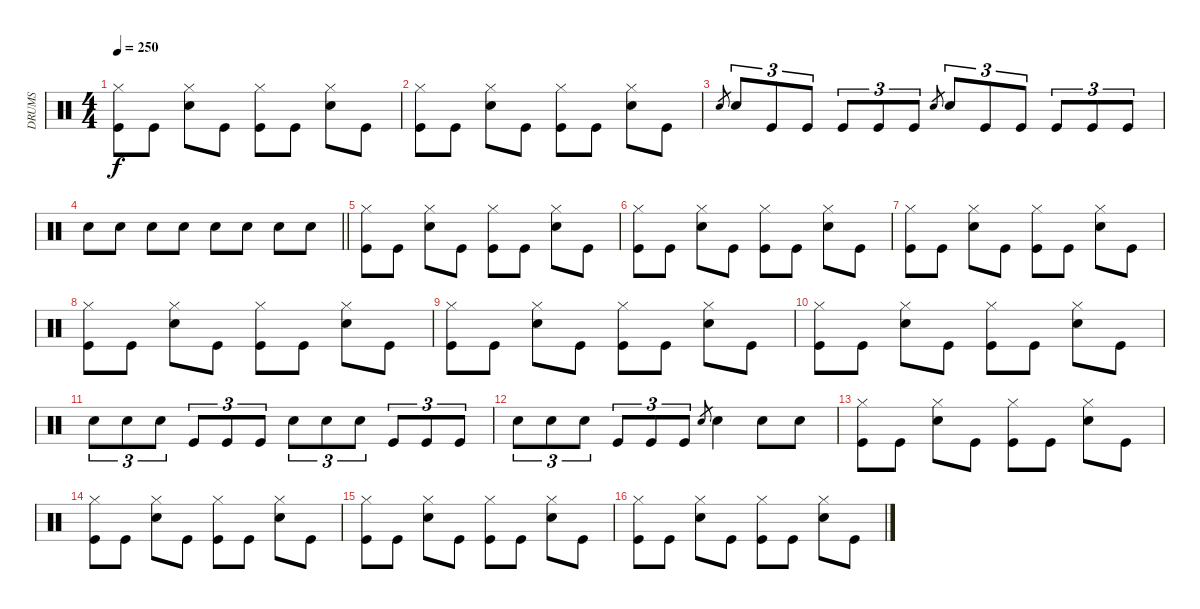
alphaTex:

\track ("DRUMS" "DRUMS") {instrument percussion}
\staff {score}
\articulation defaults
\ts (4 4)
\tempo 250
\clef neutral
\ks aminor
("Hi-Hat (closed)" "Kick (hit)").8{dy f} "Kick (hit)".8 ("Hi-Hat (closed)" "Snare (hit) 2").8 "Kick (hit)".8 ("Hi-Hat (closed)" "Kick (hit)").8 "Kick (hit)".8 ("Hi-Hat (closed)" "Snare (hit) 2").8 "Kick (hit)".8 |
("Hi-Hat (closed)" "Kick (hit)").8 "Kick (hit)".8 ("Hi-Hat (closed)" "Snare (hit) 2").8 "Kick (hit)".8 ("Hi-Hat (closed)" "Kick (hit)").8 "Kick (hit)".8 ("Hi-Hat (closed)" "Snare (hit) 2").8 "Kick (hit)".8 |
"Snare (hit) 2".8{gr} "Snare (hit) 2".8{tu (3 2)} "Kick (hit)".8{tu (3 2)} "Kick (hit)".8{tu (3 2)} "Kick (hit)".8{tu (3 2)} "Kick (hit)".8{tu (3 2)} "Kick (hit)".8{tu (3 2)} "Snare (hit) 2".8{gr} "Snare (hit) 2".8{tu (3 2)} "Kick (hit)".8{tu (3 2)} "Kick (hit)".8{tu (3 2)} "Kick (hit)".8{tu (3 2)} "Kick (hit)".8{tu (3 2)} "Kick (hit)".8{tu (3 2)} |
\barLineRight lightlight "Snare (hit) 2".8 "Snare (hit) 2".8 "Snare (hit) 2".8 "Snare (hit) 2".8 "Snare (hit) 2".8 "Snare (hit) 2".8 "Snare (hit) 2".8 "Snare (hit) 2".8
|
("Hi-Hat (closed)" "Kick (hit)").8 "Kick (hit)".8 ("Hi-Hat (closed)" "Snare (hit) 2").8 "Kick (hit)".8 ("Hi-Hat (closed)" "Kick (hit)").8 "Kick (hit)".8 ("Hi-Hat (closed)" "Snare (hit) 2").8 "Kick (hit)".8 |
("Hi-Hat (closed)" "Kick (hit)").8 "Kick (hit)".8 ("Hi-Hat (closed)" "Snare (hit) 2").8 "Kick (hit)".8 ("Hi-Hat (closed)" "Kick (hit)").8 "Kick (hit)".8 ("Hi-Hat (closed)" "Snare (hit) 2").8 "Kick (hit)".8 |
("Hi-Hat (closed)" "Kick (hit)").8 "Kick (hit)".8 ("Hi-Hat (closed)" "Snare (hit) 2").8 "Kick (hit)".8 ("Hi-Hat (closed)" "Kick (hit)").8 "Kick (hit)".8 ("Hi-Hat (closed)" "Snare (hit) 2").8 "Kick (hit)".8 |
("Hi-Hat (closed)" "Kick (hit)").8 "Kick (hit)".8 ("Hi-Hat (closed)" "Snare (hit) 2").8 "Kick (hit)".8 ("Hi-Hat (closed)" "Kick (hit)").8 "Kick (hit)".8 ("Hi-Hat (closed)" "Snare (hit) 2").8 "Kick (hit)".8 |
("Hi-Hat (closed)" "Kick (hit)").8 "Kick (hit)".8 ("Hi-Hat (closed)" "Snare (hit) 2").8 "Kick (hit)".8 ("Hi-Hat (closed)" "Kick (hit)").8 "Kick (hit)".8 ("Hi-Hat (closed)" "Snare (hit) 2").8 "Kick (hit)".8 |
("Hi-Hat (closed)" "Kick (hit)").8 "Kick (hit)".8 ("Hi-Hat (closed)" "Snare (hit) 2").8 "Kick (hit)".8 ("Hi-Hat (closed)" "Kick (hit)").8 "Kick (hit)".8 ("Hi-Hat (closed)" "Snare (hit) 2").8 "Kick (hit)".8 |
"Snare (hit) 2".8{tu (3 2)} "Snare (hit) 2".8{tu (3 2)} "Snare (hit) 2".8{tu (3 2)} "Kick (hit)".8{tu (3 2)} "Kick (hit)".8{tu (3 2)} "Kick (hit)".8{tu (3 2)} "Snare (hit) 2".8{tu (3 2)} "Snare (hit) 2".8{tu (3 2)} "Snare (hit) 2".8{tu (3 2)} "Kick (hit)".8{tu (3 2)} "Kick (hit)".8{tu (3 2)} "Kick (hit)".8{tu (3 2)} |
"Snare (hit) 2".8{tu (3 2)} "Snare (hit) 2".8{tu (3 2)} "Snare (hit) 2".8{tu (3 2)} "Kick (hit)".8{tu (3 2)} "Kick (hit)".8{tu (3 2)} "Kick (hit)".8{tu (3 2)} "Snare (hit) 2".8{gr} "Snare (hit) 2".4 "Snare (hit) 2".8 "Snare (hit) 2".8 |
("Hi-Hat (closed)" "Kick (hit)").8 "Kick (hit)".8 ("Hi-Hat (closed)" "Snare (hit) 2").8 "Kick (hit)".8 ("Hi-Hat (closed)" "Kick (hit)").8 "Kick (hit)".8 ("Hi-Hat (closed)" "Snare (hit) 2").8 "Kick (hit)".8 |
("Hi-Hat (closed)" "Kick (hit)").8 "Kick (hit)".8 ("Hi-Hat (closed)" "Snare (hit) 2").8 "Kick (hit)".8 ("Hi-Hat (closed)" "Kick (hit)").8 "Kick (hit)".8 ("Hi-Hat (closed)" "Snare (hit) 2").8 "Kick (hit)".8 |
("Hi-Hat (closed)" "Kick (hit)").8 "Kick (hit)".8 ("Hi-Hat (closed)" "Snare (hit) 2").8 "Kick (hit)".8 ("Hi-Hat (closed)" "Kick (hit)").8 "Kick (hit)".8 ("Hi-Hat (closed)" "Snare (hit) 2").8 "Kick (hit)".8 |
("Hi-Hat (closed)" "Kick (hit)").8 "Kick (hit)".8 ("Hi-Hat (closed)" "Snare (hit) 2").8 "Kick (hit)".8 ("Hi-Hat (closed)" "Kick (hit)").8 "Kick (hit)".8 ("Hi-Hat (closed)" "Snare (hit) 2").8 "Kick (hit)".8
